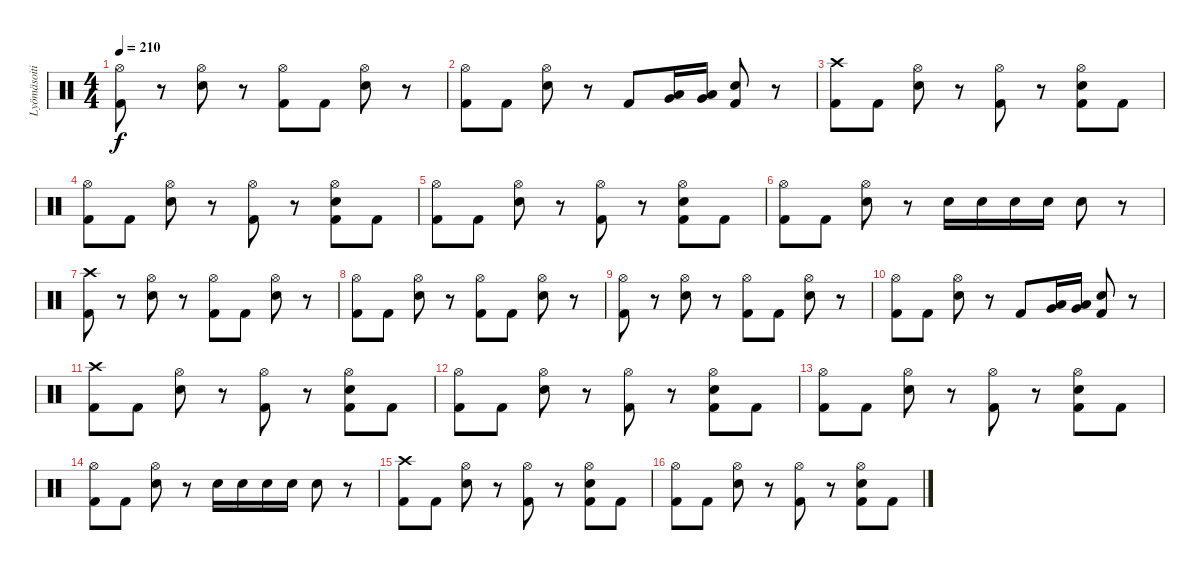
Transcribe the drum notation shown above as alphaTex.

\track ("Lyömäsoitin" "Lyömäsoiti") {instrument percussion}
\staff {score}
\articulation defaults
\ts (4 4)
\tempo 210
\clef neutral
\ks c
("Hi-Hat (open)" "Kick (hit) 2").8{dy f} r.8 ("Hi-Hat (open)" "Electric Snare (hit)").8 r.8 ("Hi-Hat (open)" "Kick (hit) 2").8 "Kick (hit) 2".8 ("Hi-Hat (open)" "Electric Snare (hit)").8 r.8 |
("Hi-Hat (open)" "Kick (hit) 2").8 "Kick (hit) 2".8 ("Hi-Hat (open)" "Electric Snare (hit)").8 r.8 "Kick (hit) 2".8 ("Low Floor Tom (hit)" "Very Low Tom (hit)").16 ("Low Floor Tom (hit)" "Very Low Tom (hit)").16 ("Electric Snare (hit)" "Kick (hit) 2").8 r.8 |
("Crash high (hit)" "Kick (hit) 2").8 "Kick (hit) 2".8 ("Hi-Hat (open)" "Electric Snare (hit)").8 r.8 ("Hi-Hat (open)" "Kick (hit) 2").8 r.8 ("Hi-Hat (open)" "Electric Snare (hit)" "Kick (hit) 2").8 "Kick (hit) 2".8 |
("Hi-Hat (open)" "Kick (hit) 2").8 "Kick (hit) 2".8 ("Hi-Hat (open)" "Electric Snare (hit)").8 r.8 ("Hi-Hat (open)" "Kick (hit) 2").8 r.8 ("Hi-Hat (open)" "Electric Snare (hit)" "Kick (hit) 2").8 "Kick (hit) 2".8 |
("Hi-Hat (open)" "Kick (hit) 2").8 "Kick (hit) 2".8 ("Hi-Hat (open)" "Electric Snare (hit)").8 r.8 ("Hi-Hat (open)" "Kick (hit) 2").8 r.8 ("Hi-Hat (open)" "Electric Snare (hit)" "Kick (hit) 2").8 "Kick (hit) 2".8 |
("Hi-Hat (open)" "Kick (hit) 2").8 "Kick (hit) 2".8 ("Hi-Hat (open)" "Electric Snare (hit)").8 r.8 "Electric Snare (hit)".16 "Electric Snare (hit)".16 "Electric Snare (hit)".16 "Electric Snare (hit)".16 "Electric Snare (hit)".8 r.8 |
("Crash high (hit)" "Kick (hit) 2").8 r.8 ("Hi-Hat (open)" "Electric Snare (hit)").8 r.8 ("Hi-Hat (open)" "Kick (hit) 2").8 "Kick (hit) 2".8 ("Hi-Hat (open)" "Electric Snare (hit)").8 r.8 |
("Hi-Hat (open)" "Kick (hit) 2").8 "Kick (hit) 2".8 ("Hi-Hat (open)" "Electric Snare (hit)").8 r.8 ("Hi-Hat (open)" "Kick (hit) 2").8 "Kick (hit) 2".8 ("Hi-Hat (open)" "Electric Snare (hit)").8 r.8 |
("Hi-Hat (open)" "Kick (hit) 2").8 r.8 ("Hi-Hat (open)" "Electric Snare (hit)").8 r.8 ("Hi-Hat (open)" "Kick (hit) 2").8 "Kick (hit) 2".8 ("Hi-Hat (open)" "Electric Snare (hit)").8 r.8 |
("Hi-Hat (open)" "Kick (hit) 2").8 "Kick (hit) 2".8 ("Hi-Hat (open)" "Electric Snare (hit)").8 r.8 "Kick (hit) 2".8 ("Low Floor Tom (hit)" "Very Low Tom (hit)").16 ("Low Floor Tom (hit)" "Very Low Tom (hit)").16 ("Electric Snare (hit)" "Kick (hit) 2").8 r.8 |
("Crash high (hit)" "Kick (hit) 2").8 "Kick (hit) 2".8 ("Hi-Hat (open)" "Electric Snare (hit)").8 r.8 ("Hi-Hat (open)" "Kick (hit) 2").8 r.8 ("Hi-Hat (open)" "Electric Snare (hit)" "Kick (hit) 2").8 "Kick (hit) 2".8 |
("Hi-Hat (open)" "Kick (hit) 2").8 "Kick (hit) 2".8 ("Hi-Hat (open)" "Electric Snare (hit)").8 r.8 ("Hi-Hat (open)" "Kick (hit) 2").8 r.8 ("Hi-Hat (open)" "Electric Snare (hit)" "Kick (hit) 2").8 "Kick (hit) 2".8 |
("Hi-Hat (open)" "Kick (hit) 2").8 "Kick (hit) 2".8 ("Hi-Hat (open)" "Electric Snare (hit)").8 r.8 ("Hi-Hat (open)" "Kick (hit) 2").8 r.8 ("Hi-Hat (open)" "Electric Snare (hit)" "Kick (hit) 2").8 "Kick (hit) 2".8 |
("Hi-Hat (open)" "Kick (hit) 2").8 "Kick (hit) 2".8 ("Hi-Hat (open)" "Electric Snare (hit)").8 r.8 "Electric Snare (hit)".16 "Electric Snare (hit)".16 "Electric Snare (hit)".16 "Electric Snare (hit)".16 "Electric Snare (hit)".8 r.8 |
("Crash high (hit)" "Kick (hit) 2").8 "Kick (hit) 2".8 ("Hi-Hat (open)" "Electric Snare (hit)").8 r.8 ("Hi-Hat (open)" "Kick (hit) 2").8 r.8 ("Hi-Hat (open)" "Electric Snare (hit)" "Kick (hit) 2").8 "Kick (hit) 2".8 |
("Hi-Hat (open)" "Kick (hit) 2").8 "Kick (hit) 2".8 ("Hi-Hat (open)" "Electric Snare (hit)").8 r.8 ("Hi-Hat (open)" "Kick (hit) 2").8 r.8 ("Hi-Hat (open)" "Electric Snare (hit)" "Kick (hit) 2").8 "Kick (hit) 2".8
